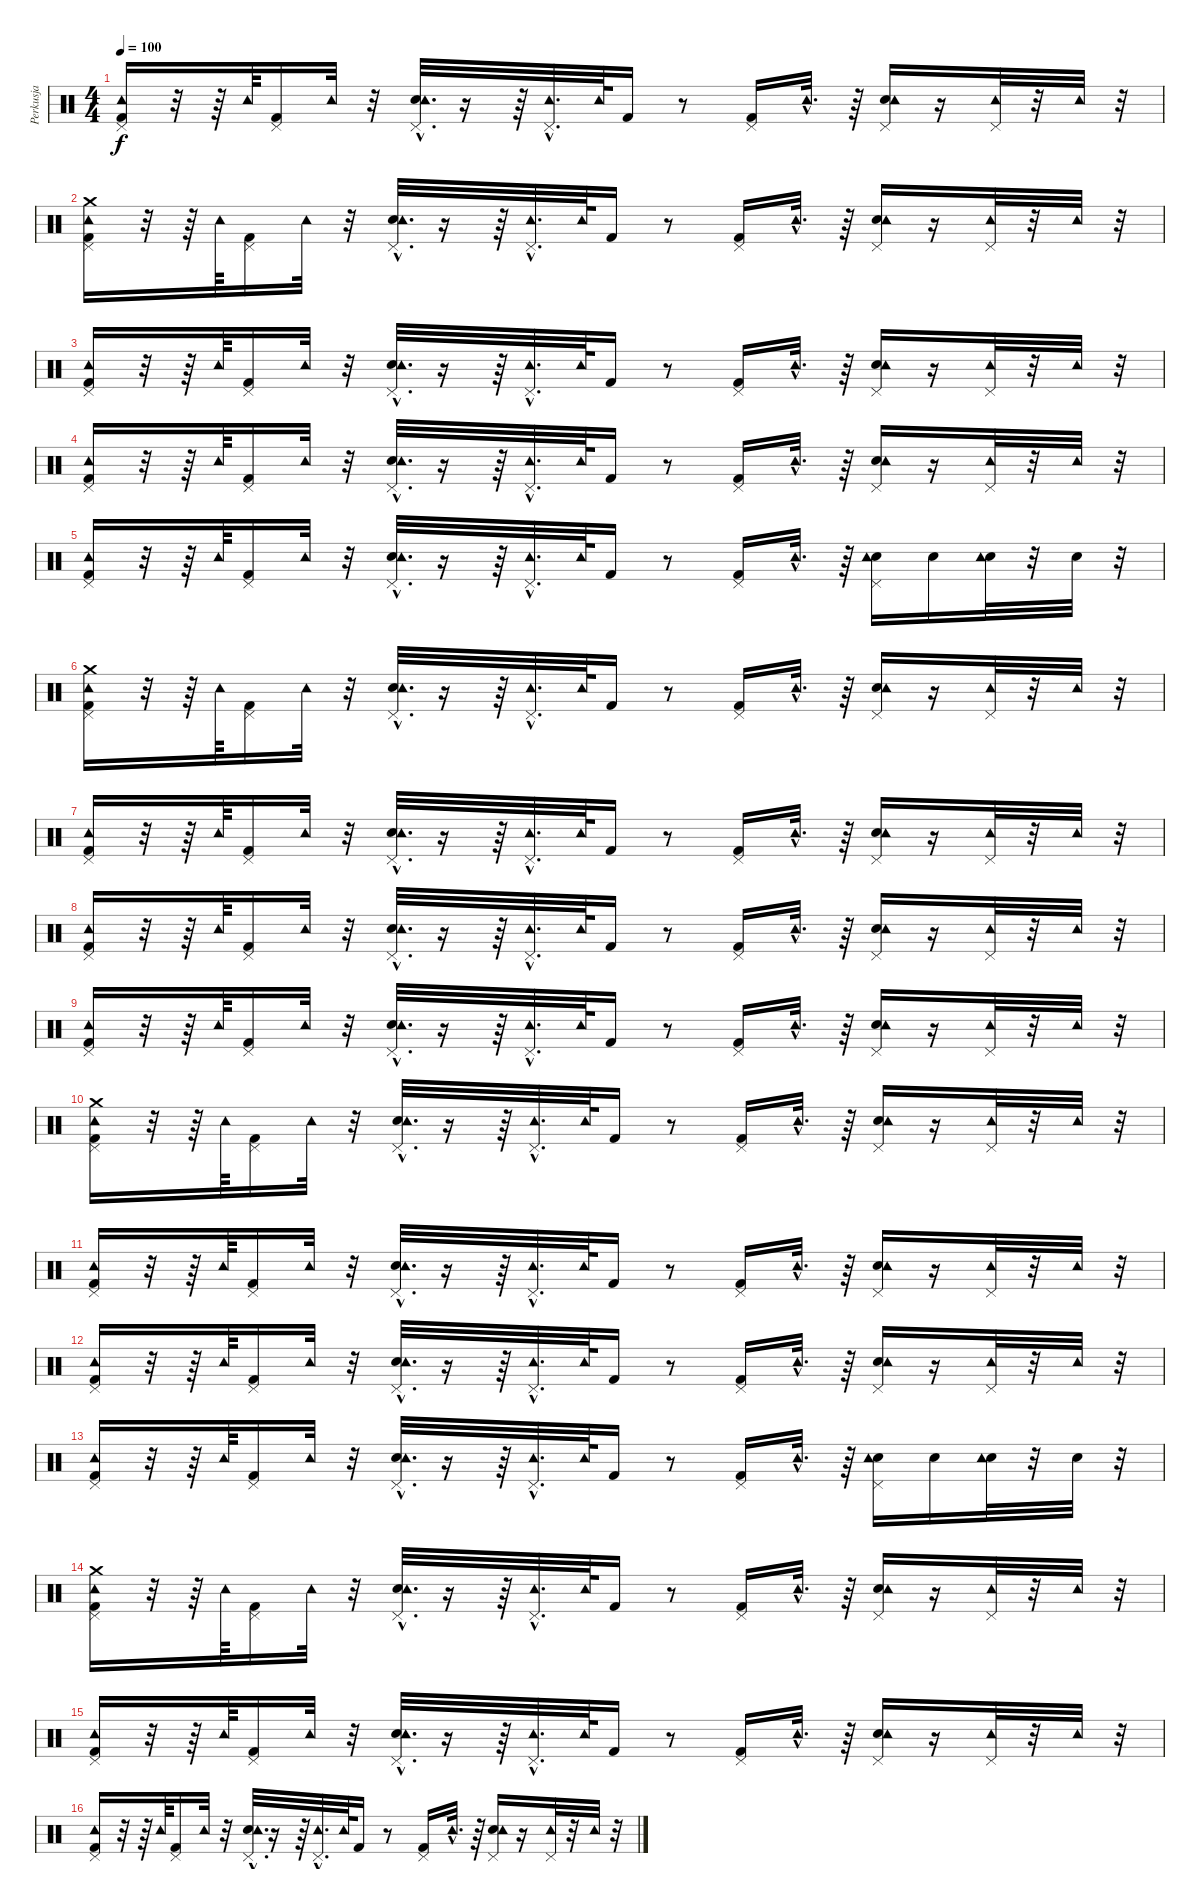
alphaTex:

\track ("Perkusja" "Perkusja") {instrument percussion}
\staff {score}
\articulation defaults
\ts (4 4)
\tempo 100
\clef neutral
\ks c
("Tambourine (hit)" "Pedal Hi-Hat (hit)" "Kick (hit) 2").16{dy f} r.32 r.64 "Tambourine (hit)".64 ("Kick (hit) 2" "Pedal Hi-Hat (hit)").16 "Tambourine (hit)".32 r.32 ("Electric Snare (hit)"{hac} "Pedal Hi-Hat (hit)"{hac} "Tambourine (hit)"{hac}).32{d} r.16 r.64 ("Pedal Hi-Hat (hit)"{hac} "Tambourine (hit)"{hac}).32{d} "Tambourine (hit)".64 "Kick (hit) 2".16 r.8 ("Kick (hit) 2" "Pedal Hi-Hat (hit)").16 "Tambourine (hit)"{hac}.32{d} r.64 ("Electric Snare (hit)" "Pedal Hi-Hat (hit)" "Tambourine (hit)").16 r.16 ("Pedal Hi-Hat (hit)" "Tambourine (hit)").32 r.32 "Tambourine (hit)".32 r.32 |
("Tambourine (hit)" "Pedal Hi-Hat (hit)" "Kick (hit) 2" "Crash medium (hit)").16 r.32 r.64 "Tambourine (hit)".64 ("Kick (hit) 2" "Pedal Hi-Hat (hit)").16 "Tambourine (hit)".32 r.32 ("Electric Snare (hit)"{hac} "Pedal Hi-Hat (hit)"{hac} "Tambourine (hit)"{hac}).32{d} r.16 r.64 ("Pedal Hi-Hat (hit)"{hac} "Tambourine (hit)"{hac}).32{d} "Tambourine (hit)".64 "Kick (hit) 2".16 r.8 ("Kick (hit) 2" "Pedal Hi-Hat (hit)").16 "Tambourine (hit)"{hac}.32{d} r.64 ("Electric Snare (hit)" "Pedal Hi-Hat (hit)" "Tambourine (hit)").16 r.16 ("Pedal Hi-Hat (hit)" "Tambourine (hit)").32 r.32 "Tambourine (hit)".32 r.32 |
("Tambourine (hit)" "Pedal Hi-Hat (hit)" "Kick (hit) 2").16 r.32 r.64 "Tambourine (hit)".64 ("Kick (hit) 2" "Pedal Hi-Hat (hit)").16 "Tambourine (hit)".32 r.32 ("Electric Snare (hit)"{hac} "Pedal Hi-Hat (hit)"{hac} "Tambourine (hit)"{hac}).32{d} r.16 r.64 ("Pedal Hi-Hat (hit)"{hac} "Tambourine (hit)"{hac}).32{d} "Tambourine (hit)".64 "Kick (hit) 2".16 r.8 ("Kick (hit) 2" "Pedal Hi-Hat (hit)").16 "Tambourine (hit)"{hac}.32{d} r.64 ("Electric Snare (hit)" "Pedal Hi-Hat (hit)" "Tambourine (hit)").16 r.16 ("Pedal Hi-Hat (hit)" "Tambourine (hit)").32 r.32 "Tambourine (hit)".32 r.32 |
("Tambourine (hit)" "Pedal Hi-Hat (hit)" "Kick (hit) 2").16 r.32 r.64 "Tambourine (hit)".64 ("Kick (hit) 2" "Pedal Hi-Hat (hit)").16 "Tambourine (hit)".32 r.32 ("Electric Snare (hit)"{hac} "Pedal Hi-Hat (hit)"{hac} "Tambourine (hit)"{hac}).32{d} r.16 r.64 ("Pedal Hi-Hat (hit)"{hac} "Tambourine (hit)"{hac}).32{d} "Tambourine (hit)".64 "Kick (hit) 2".16 r.8 ("Kick (hit) 2" "Pedal Hi-Hat (hit)").16 "Tambourine (hit)"{hac}.32{d} r.64 ("Electric Snare (hit)" "Pedal Hi-Hat (hit)" "Tambourine (hit)").16 r.16 ("Pedal Hi-Hat (hit)" "Tambourine (hit)").32 r.32 "Tambourine (hit)".32 r.32 |
("Tambourine (hit)" "Pedal Hi-Hat (hit)" "Kick (hit) 2").16 r.32 r.64 "Tambourine (hit)".64 ("Kick (hit) 2" "Pedal Hi-Hat (hit)").16 "Tambourine (hit)".32 r.32 ("Electric Snare (hit)"{hac} "Pedal Hi-Hat (hit)"{hac} "Tambourine (hit)"{hac}).32{d} r.16 r.64 ("Pedal Hi-Hat (hit)"{hac} "Tambourine (hit)"{hac}).32{d} "Tambourine (hit)".64 "Kick (hit) 2".16 r.8 ("Kick (hit) 2" "Pedal Hi-Hat (hit)").16 "Tambourine (hit)"{hac}.32{d} r.64 ("Electric Snare (hit)" "Pedal Hi-Hat (hit)" "Tambourine (hit)").16 "Electric Snare (hit)".16 ("Electric Snare (hit)" "Tambourine (hit)").32 r.32 "Electric Snare (hit)".32 r.32 |
("Tambourine (hit)" "Pedal Hi-Hat (hit)" "Kick (hit) 2" "Crash medium (hit)").16 r.32 r.64 "Tambourine (hit)".64 ("Kick (hit) 2" "Pedal Hi-Hat (hit)").16 "Tambourine (hit)".32 r.32 ("Electric Snare (hit)"{hac} "Pedal Hi-Hat (hit)"{hac} "Tambourine (hit)"{hac}).32{d} r.16 r.64 ("Pedal Hi-Hat (hit)"{hac} "Tambourine (hit)"{hac}).32{d} "Tambourine (hit)".64 "Kick (hit) 2".16 r.8 ("Kick (hit) 2" "Pedal Hi-Hat (hit)").16 "Tambourine (hit)"{hac}.32{d} r.64 ("Electric Snare (hit)" "Pedal Hi-Hat (hit)" "Tambourine (hit)").16 r.16 ("Pedal Hi-Hat (hit)" "Tambourine (hit)").32 r.32 "Tambourine (hit)".32 r.32 |
("Tambourine (hit)" "Pedal Hi-Hat (hit)" "Kick (hit) 2").16 r.32 r.64 "Tambourine (hit)".64 ("Kick (hit) 2" "Pedal Hi-Hat (hit)").16 "Tambourine (hit)".32 r.32 ("Electric Snare (hit)"{hac} "Pedal Hi-Hat (hit)"{hac} "Tambourine (hit)"{hac}).32{d} r.16 r.64 ("Pedal Hi-Hat (hit)"{hac} "Tambourine (hit)"{hac}).32{d} "Tambourine (hit)".64 "Kick (hit) 2".16 r.8 ("Kick (hit) 2" "Pedal Hi-Hat (hit)").16 "Tambourine (hit)"{hac}.32{d} r.64 ("Electric Snare (hit)" "Pedal Hi-Hat (hit)" "Tambourine (hit)").16 r.16 ("Pedal Hi-Hat (hit)" "Tambourine (hit)").32 r.32 "Tambourine (hit)".32 r.32 |
("Tambourine (hit)" "Pedal Hi-Hat (hit)" "Kick (hit) 2").16 r.32 r.64 "Tambourine (hit)".64 ("Kick (hit) 2" "Pedal Hi-Hat (hit)").16 "Tambourine (hit)".32 r.32 ("Electric Snare (hit)"{hac} "Pedal Hi-Hat (hit)"{hac} "Tambourine (hit)"{hac}).32{d} r.16 r.64 ("Pedal Hi-Hat (hit)"{hac} "Tambourine (hit)"{hac}).32{d} "Tambourine (hit)".64 "Kick (hit) 2".16 r.8 ("Kick (hit) 2" "Pedal Hi-Hat (hit)").16 "Tambourine (hit)"{hac}.32{d} r.64 ("Electric Snare (hit)" "Pedal Hi-Hat (hit)" "Tambourine (hit)").16 r.16 ("Pedal Hi-Hat (hit)" "Tambourine (hit)").32 r.32 "Tambourine (hit)".32 r.32 |
("Tambourine (hit)" "Pedal Hi-Hat (hit)" "Kick (hit) 2").16 r.32 r.64 "Tambourine (hit)".64 ("Kick (hit) 2" "Pedal Hi-Hat (hit)").16 "Tambourine (hit)".32 r.32 ("Electric Snare (hit)"{hac} "Pedal Hi-Hat (hit)"{hac} "Tambourine (hit)"{hac}).32{d} r.16 r.64 ("Pedal Hi-Hat (hit)"{hac} "Tambourine (hit)"{hac}).32{d} "Tambourine (hit)".64 "Kick (hit) 2".16 r.8 ("Kick (hit) 2" "Pedal Hi-Hat (hit)").16 "Tambourine (hit)"{hac}.32{d} r.64 ("Electric Snare (hit)" "Pedal Hi-Hat (hit)" "Tambourine (hit)").16 r.16 ("Pedal Hi-Hat (hit)" "Tambourine (hit)").32 r.32 "Tambourine (hit)".32 r.32 |
("Tambourine (hit)" "Pedal Hi-Hat (hit)" "Kick (hit) 2" "Crash medium (hit)").16 r.32 r.64 "Tambourine (hit)".64 ("Kick (hit) 2" "Pedal Hi-Hat (hit)").16 "Tambourine (hit)".32 r.32 ("Electric Snare (hit)"{hac} "Pedal Hi-Hat (hit)"{hac} "Tambourine (hit)"{hac}).32{d} r.16 r.64 ("Pedal Hi-Hat (hit)"{hac} "Tambourine (hit)"{hac}).32{d} "Tambourine (hit)".64 "Kick (hit) 2".16 r.8 ("Kick (hit) 2" "Pedal Hi-Hat (hit)").16 "Tambourine (hit)"{hac}.32{d} r.64 ("Electric Snare (hit)" "Pedal Hi-Hat (hit)" "Tambourine (hit)").16 r.16 ("Pedal Hi-Hat (hit)" "Tambourine (hit)").32 r.32 "Tambourine (hit)".32 r.32 |
("Tambourine (hit)" "Pedal Hi-Hat (hit)" "Kick (hit) 2").16 r.32 r.64 "Tambourine (hit)".64 ("Kick (hit) 2" "Pedal Hi-Hat (hit)").16 "Tambourine (hit)".32 r.32 ("Electric Snare (hit)"{hac} "Pedal Hi-Hat (hit)"{hac} "Tambourine (hit)"{hac}).32{d} r.16 r.64 ("Pedal Hi-Hat (hit)"{hac} "Tambourine (hit)"{hac}).32{d} "Tambourine (hit)".64 "Kick (hit) 2".16 r.8 ("Kick (hit) 2" "Pedal Hi-Hat (hit)").16 "Tambourine (hit)"{hac}.32{d} r.64 ("Electric Snare (hit)" "Pedal Hi-Hat (hit)" "Tambourine (hit)").16 r.16 ("Pedal Hi-Hat (hit)" "Tambourine (hit)").32 r.32 "Tambourine (hit)".32 r.32 |
("Tambourine (hit)" "Pedal Hi-Hat (hit)" "Kick (hit) 2").16 r.32 r.64 "Tambourine (hit)".64 ("Kick (hit) 2" "Pedal Hi-Hat (hit)").16 "Tambourine (hit)".32 r.32 ("Electric Snare (hit)"{hac} "Pedal Hi-Hat (hit)"{hac} "Tambourine (hit)"{hac}).32{d} r.16 r.64 ("Pedal Hi-Hat (hit)"{hac} "Tambourine (hit)"{hac}).32{d} "Tambourine (hit)".64 "Kick (hit) 2".16 r.8 ("Kick (hit) 2" "Pedal Hi-Hat (hit)").16 "Tambourine (hit)"{hac}.32{d} r.64 ("Electric Snare (hit)" "Pedal Hi-Hat (hit)" "Tambourine (hit)").16 r.16 ("Pedal Hi-Hat (hit)" "Tambourine (hit)").32 r.32 "Tambourine (hit)".32 r.32 |
("Tambourine (hit)" "Pedal Hi-Hat (hit)" "Kick (hit) 2").16 r.32 r.64 "Tambourine (hit)".64 ("Kick (hit) 2" "Pedal Hi-Hat (hit)").16 "Tambourine (hit)".32 r.32 ("Electric Snare (hit)"{hac} "Pedal Hi-Hat (hit)"{hac} "Tambourine (hit)"{hac}).32{d} r.16 r.64 ("Pedal Hi-Hat (hit)"{hac} "Tambourine (hit)"{hac}).32{d} "Tambourine (hit)".64 "Kick (hit) 2".16 r.8 ("Kick (hit) 2" "Pedal Hi-Hat (hit)").16 "Tambourine (hit)"{hac}.32{d} r.64 ("Electric Snare (hit)" "Pedal Hi-Hat (hit)" "Tambourine (hit)").16 "Electric Snare (hit)".16 ("Electric Snare (hit)" "Tambourine (hit)").32 r.32 "Electric Snare (hit)".32 r.32 |
("Tambourine (hit)" "Pedal Hi-Hat (hit)" "Kick (hit) 2" "Crash medium (hit)").16 r.32 r.64 "Tambourine (hit)".64 ("Kick (hit) 2" "Pedal Hi-Hat (hit)").16 "Tambourine (hit)".32 r.32 ("Electric Snare (hit)"{hac} "Pedal Hi-Hat (hit)"{hac} "Tambourine (hit)"{hac}).32{d} r.16 r.64 ("Pedal Hi-Hat (hit)"{hac} "Tambourine (hit)"{hac}).32{d} "Tambourine (hit)".64 "Kick (hit) 2".16 r.8 ("Kick (hit) 2" "Pedal Hi-Hat (hit)").16 "Tambourine (hit)"{hac}.32{d} r.64 ("Electric Snare (hit)" "Pedal Hi-Hat (hit)" "Tambourine (hit)").16 r.16 ("Pedal Hi-Hat (hit)" "Tambourine (hit)").32 r.32 "Tambourine (hit)".32 r.32 |
("Tambourine (hit)" "Pedal Hi-Hat (hit)" "Kick (hit) 2").16 r.32 r.64 "Tambourine (hit)".64 ("Kick (hit) 2" "Pedal Hi-Hat (hit)").16 "Tambourine (hit)".32 r.32 ("Electric Snare (hit)"{hac} "Pedal Hi-Hat (hit)"{hac} "Tambourine (hit)"{hac}).32{d} r.16 r.64 ("Pedal Hi-Hat (hit)"{hac} "Tambourine (hit)"{hac}).32{d} "Tambourine (hit)".64 "Kick (hit) 2".16 r.8 ("Kick (hit) 2" "Pedal Hi-Hat (hit)").16 "Tambourine (hit)"{hac}.32{d} r.64 ("Electric Snare (hit)" "Pedal Hi-Hat (hit)" "Tambourine (hit)").16 r.16 ("Pedal Hi-Hat (hit)" "Tambourine (hit)").32 r.32 "Tambourine (hit)".32 r.32 |
("Tambourine (hit)" "Pedal Hi-Hat (hit)" "Kick (hit) 2").16 r.32 r.64 "Tambourine (hit)".64 ("Kick (hit) 2" "Pedal Hi-Hat (hit)").16 "Tambourine (hit)".32 r.32 ("Electric Snare (hit)"{hac} "Pedal Hi-Hat (hit)"{hac} "Tambourine (hit)"{hac}).32{d} r.16 r.64 ("Pedal Hi-Hat (hit)"{hac} "Tambourine (hit)"{hac}).32{d} "Tambourine (hit)".64 "Kick (hit) 2".16 r.8 ("Kick (hit) 2" "Pedal Hi-Hat (hit)").16 "Tambourine (hit)"{hac}.32{d} r.64 ("Electric Snare (hit)" "Pedal Hi-Hat (hit)" "Tambourine (hit)").16 r.16 ("Pedal Hi-Hat (hit)" "Tambourine (hit)").32 r.32 "Tambourine (hit)".32 r.32
